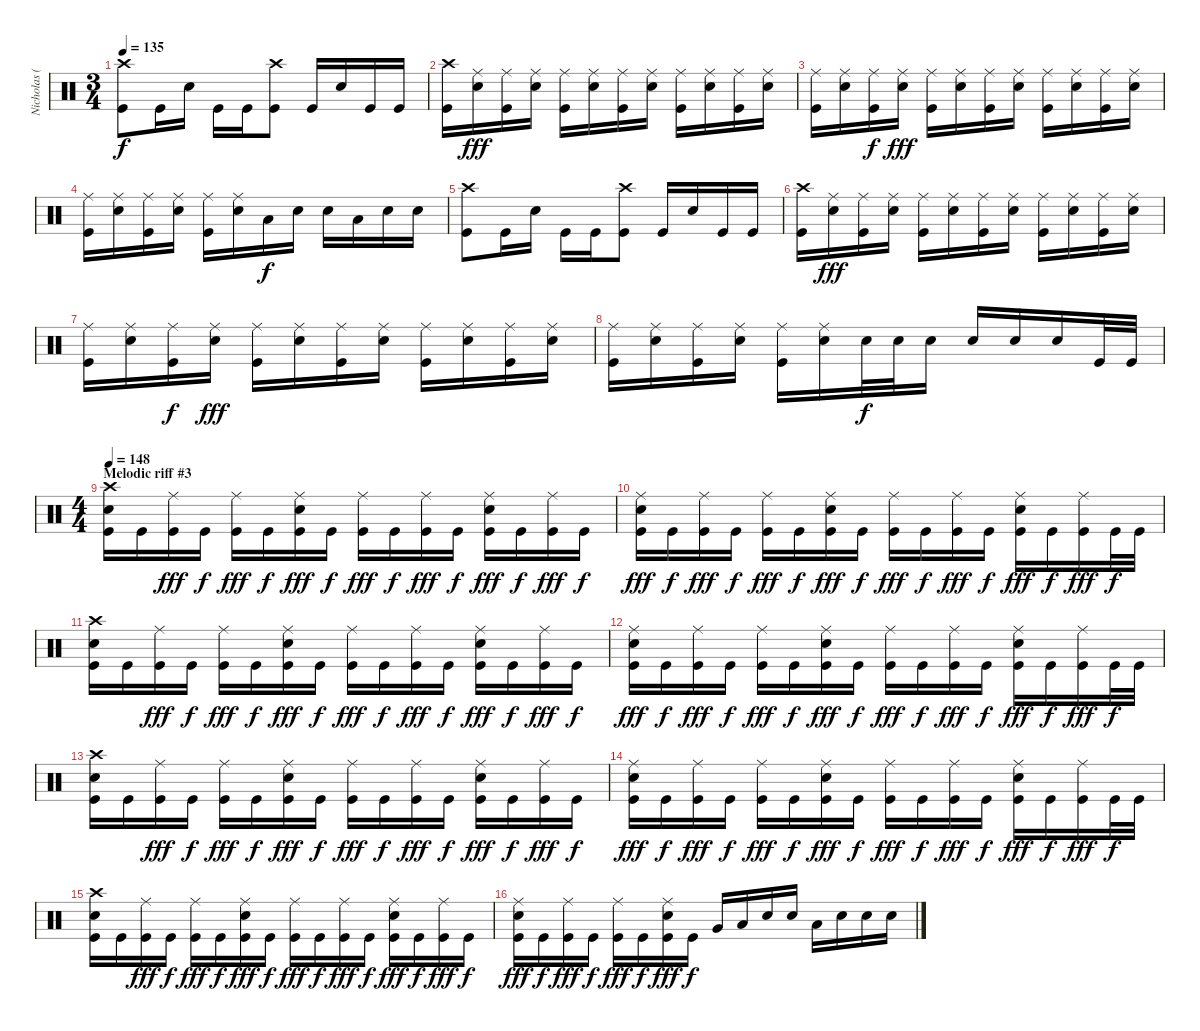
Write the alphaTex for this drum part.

\track ("Nicholas (Drums)" "Nicholas (") {instrument percussion}
\staff {score}
\articulation defaults
\ts (3 4)
\tempo 135
\clef neutral
\ks c
("Crash high (hit)" "Kick (hit)").8{dy f} "Kick (hit)".16 "Electric Snare (hit)".16 "Kick (hit)".16 "Kick (hit)".16 ("Crash high (hit)" "Kick (hit)").8 "Kick (hit)".16 "Electric Snare (hit)".16 "Kick (hit)".16 "Kick (hit)".16 |
("Crash high (hit)" "Kick (hit)").16 ("Ride (middle)" "Electric Snare (hit)").16{dy fff} ("Ride (middle)" "Kick (hit)").16 ("Ride (middle)" "Electric Snare (hit)").16 ("Ride (middle)" "Kick (hit)").16 ("Ride (middle)" "Electric Snare (hit)").16 ("Ride (middle)" "Kick (hit)").16 ("Ride (middle)" "Electric Snare (hit)").16 ("Ride (middle)" "Kick (hit)").16 ("Ride (middle)" "Electric Snare (hit)").16 ("Ride (middle)" "Kick (hit)").16 ("Ride (middle)" "Electric Snare (hit)").16 |
("Ride (middle)" "Kick (hit)").16 ("Ride (middle)" "Electric Snare (hit)").16 ("Ride (middle)" "Kick (hit)").16{dy f} ("Ride (middle)" "Electric Snare (hit)").16{dy fff} ("Ride (middle)" "Kick (hit)").16 ("Ride (middle)" "Electric Snare (hit)").16 ("Ride (middle)" "Kick (hit)").16 ("Ride (middle)" "Electric Snare (hit)").16 ("Ride (middle)" "Kick (hit)").16 ("Ride (middle)" "Electric Snare (hit)").16 ("Ride (middle)" "Kick (hit)").16 ("Ride (middle)" "Electric Snare (hit)").16 |
("Ride (middle)" "Kick (hit)").16 ("Ride (middle)" "Electric Snare (hit)").16 ("Ride (middle)" "Kick (hit)").16 ("Ride (middle)" "Electric Snare (hit)").16 ("Ride (middle)" "Kick (hit)").16 ("Ride (middle)" "Electric Snare (hit)").16 "Low Tom (hit)".16{dy f} "Electric Snare (hit)".16 "Electric Snare (hit)".16 "Low Tom (hit)".16 "Electric Snare (hit)".16 "Electric Snare (hit)".16 |
("Crash high (hit)" "Kick (hit)").8 "Kick (hit)".16 "Electric Snare (hit)".16 "Kick (hit)".16 "Kick (hit)".16 ("Crash high (hit)" "Kick (hit)").8 "Kick (hit)".16 "Electric Snare (hit)".16 "Kick (hit)".16 "Kick (hit)".16 |
("Crash high (hit)" "Kick (hit)").16 ("Ride (middle)" "Electric Snare (hit)").16{dy fff} ("Ride (middle)" "Kick (hit)").16 ("Ride (middle)" "Electric Snare (hit)").16 ("Ride (middle)" "Kick (hit)").16 ("Ride (middle)" "Electric Snare (hit)").16 ("Ride (middle)" "Kick (hit)").16 ("Ride (middle)" "Electric Snare (hit)").16 ("Ride (middle)" "Kick (hit)").16 ("Ride (middle)" "Electric Snare (hit)").16 ("Ride (middle)" "Kick (hit)").16 ("Ride (middle)" "Electric Snare (hit)").16 |
("Ride (middle)" "Kick (hit)").16 ("Ride (middle)" "Electric Snare (hit)").16 ("Ride (middle)" "Kick (hit)").16{dy f} ("Ride (middle)" "Electric Snare (hit)").16{dy fff} ("Ride (middle)" "Kick (hit)").16 ("Ride (middle)" "Electric Snare (hit)").16 ("Ride (middle)" "Kick (hit)").16 ("Ride (middle)" "Electric Snare (hit)").16 ("Ride (middle)" "Kick (hit)").16 ("Ride (middle)" "Electric Snare (hit)").16 ("Ride (middle)" "Kick (hit)").16 ("Ride (middle)" "Electric Snare (hit)").16 |
("Ride (middle)" "Kick (hit)").16 ("Ride (middle)" "Electric Snare (hit)").16 ("Ride (middle)" "Kick (hit)").16 ("Ride (middle)" "Electric Snare (hit)").16 ("Ride (middle)" "Kick (hit)").16 ("Ride (middle)" "Electric Snare (hit)").16 "Electric Snare (hit)".32{dy f} "Electric Snare (hit)".32 "Electric Snare (hit)".16 "Electric Snare (hit)".16 "Electric Snare (hit)".16 "Electric Snare (hit)".16 "Kick (hit)".32 "Kick (hit)".32 |
\ts (4 4)
\section ("" "Melodic riff #3")
\tempo 148
("Crash high (hit)" "Electric Snare (hit)" "Kick (hit)").16 "Kick (hit)".16 ("Ride (middle)" "Kick (hit)").16{dy fff} "Kick (hit)".16{dy f} ("Ride (middle)" "Kick (hit)").16{dy fff} "Kick (hit)".16{dy f} ("Ride (middle)" "Electric Snare (hit)" "Kick (hit)").16{dy fff} "Kick (hit)".16{dy f} ("Ride (middle)" "Kick (hit)").16{dy fff} "Kick (hit)".16{dy f} ("Ride (middle)" "Kick (hit)").16{dy fff} "Kick (hit)".16{dy f} ("Ride (middle)" "Electric Snare (hit)" "Kick (hit)").16{dy fff} "Kick (hit)".16{dy f} ("Ride (middle)" "Kick (hit)").16{dy fff} "Kick (hit)".16{dy f} |
("Ride (middle)" "Electric Snare (hit)" "Kick (hit)").16{dy fff} "Kick (hit)".16{dy f} ("Ride (middle)" "Kick (hit)").16{dy fff} "Kick (hit)".16{dy f} ("Ride (middle)" "Kick (hit)").16{dy fff} "Kick (hit)".16{dy f} ("Ride (middle)" "Electric Snare (hit)" "Kick (hit)").16{dy fff} "Kick (hit)".16{dy f} ("Ride (middle)" "Kick (hit)").16{dy fff} "Kick (hit)".16{dy f} ("Ride (middle)" "Kick (hit)").16{dy fff} "Kick (hit)".16{dy f} ("Ride (middle)" "Electric Snare (hit)" "Kick (hit)").16{dy fff} "Kick (hit)".16{dy f} ("Ride (middle)" "Kick (hit)").16{dy fff} "Kick (hit)".32{dy f} "Kick (hit)".32 |
("Crash high (hit)" "Electric Snare (hit)" "Kick (hit)").16 "Kick (hit)".16 ("Ride (middle)" "Kick (hit)").16{dy fff} "Kick (hit)".16{dy f} ("Ride (middle)" "Kick (hit)").16{dy fff} "Kick (hit)".16{dy f} ("Ride (middle)" "Electric Snare (hit)" "Kick (hit)").16{dy fff} "Kick (hit)".16{dy f} ("Ride (middle)" "Kick (hit)").16{dy fff} "Kick (hit)".16{dy f} ("Ride (middle)" "Kick (hit)").16{dy fff} "Kick (hit)".16{dy f} ("Ride (middle)" "Electric Snare (hit)" "Kick (hit)").16{dy fff} "Kick (hit)".16{dy f} ("Ride (middle)" "Kick (hit)").16{dy fff} "Kick (hit)".16{dy f} |
("Ride (middle)" "Electric Snare (hit)" "Kick (hit)").16{dy fff} "Kick (hit)".16{dy f} ("Ride (middle)" "Kick (hit)").16{dy fff} "Kick (hit)".16{dy f} ("Ride (middle)" "Kick (hit)").16{dy fff} "Kick (hit)".16{dy f} ("Ride (middle)" "Electric Snare (hit)" "Kick (hit)").16{dy fff} "Kick (hit)".16{dy f} ("Ride (middle)" "Kick (hit)").16{dy fff} "Kick (hit)".16{dy f} ("Ride (middle)" "Kick (hit)").16{dy fff} "Kick (hit)".16{dy f} ("Ride (middle)" "Electric Snare (hit)" "Kick (hit)").16{dy fff} "Kick (hit)".16{dy f} ("Ride (middle)" "Kick (hit)").16{dy fff} "Kick (hit)".32{dy f} "Kick (hit)".32 |
("Crash high (hit)" "Electric Snare (hit)" "Kick (hit)").16 "Kick (hit)".16 ("Ride (middle)" "Kick (hit)").16{dy fff} "Kick (hit)".16{dy f} ("Ride (middle)" "Kick (hit)").16{dy fff} "Kick (hit)".16{dy f} ("Ride (middle)" "Electric Snare (hit)" "Kick (hit)").16{dy fff} "Kick (hit)".16{dy f} ("Ride (middle)" "Kick (hit)").16{dy fff} "Kick (hit)".16{dy f} ("Ride (middle)" "Kick (hit)").16{dy fff} "Kick (hit)".16{dy f} ("Ride (middle)" "Electric Snare (hit)" "Kick (hit)").16{dy fff} "Kick (hit)".16{dy f} ("Ride (middle)" "Kick (hit)").16{dy fff} "Kick (hit)".16{dy f} |
("Ride (middle)" "Electric Snare (hit)" "Kick (hit)").16{dy fff} "Kick (hit)".16{dy f} ("Ride (middle)" "Kick (hit)").16{dy fff} "Kick (hit)".16{dy f} ("Ride (middle)" "Kick (hit)").16{dy fff} "Kick (hit)".16{dy f} ("Ride (middle)" "Electric Snare (hit)" "Kick (hit)").16{dy fff} "Kick (hit)".16{dy f} ("Ride (middle)" "Kick (hit)").16{dy fff} "Kick (hit)".16{dy f} ("Ride (middle)" "Kick (hit)").16{dy fff} "Kick (hit)".16{dy f} ("Ride (middle)" "Electric Snare (hit)" "Kick (hit)").16{dy fff} "Kick (hit)".16{dy f} ("Ride (middle)" "Kick (hit)").16{dy fff} "Kick (hit)".32{dy f} "Kick (hit)".32 |
("Crash high (hit)" "Electric Snare (hit)" "Kick (hit)").16 "Kick (hit)".16 ("Ride (middle)" "Kick (hit)").16{dy fff} "Kick (hit)".16{dy f} ("Ride (middle)" "Kick (hit)").16{dy fff} "Kick (hit)".16{dy f} ("Ride (middle)" "Electric Snare (hit)" "Kick (hit)").16{dy fff} "Kick (hit)".16{dy f} ("Ride (middle)" "Kick (hit)").16{dy fff} "Kick (hit)".16{dy f} ("Ride (middle)" "Kick (hit)").16{dy fff} "Kick (hit)".16{dy f} ("Ride (middle)" "Electric Snare (hit)" "Kick (hit)").16{dy fff} "Kick (hit)".16{dy f} ("Ride (middle)" "Kick (hit)").16{dy fff} "Kick (hit)".16{dy f} |
("Ride (middle)" "Electric Snare (hit)" "Kick (hit)").16{dy fff} "Kick (hit)".16{dy f} ("Ride (middle)" "Kick (hit)").16{dy fff} "Kick (hit)".16{dy f} ("Ride (middle)" "Kick (hit)").16{dy fff} "Kick (hit)".16{dy f} ("Ride (middle)" "Electric Snare (hit)" "Kick (hit)").16{dy fff} "Kick (hit)".16{dy f} "Very Low Tom (hit)".16 "Low Tom (hit)".16 "Electric Snare (hit)".16 "Electric Snare (hit)".16 "Low Tom (hit)".16 "Electric Snare (hit)".16 "Electric Snare (hit)".16 "Electric Snare (hit)".16
